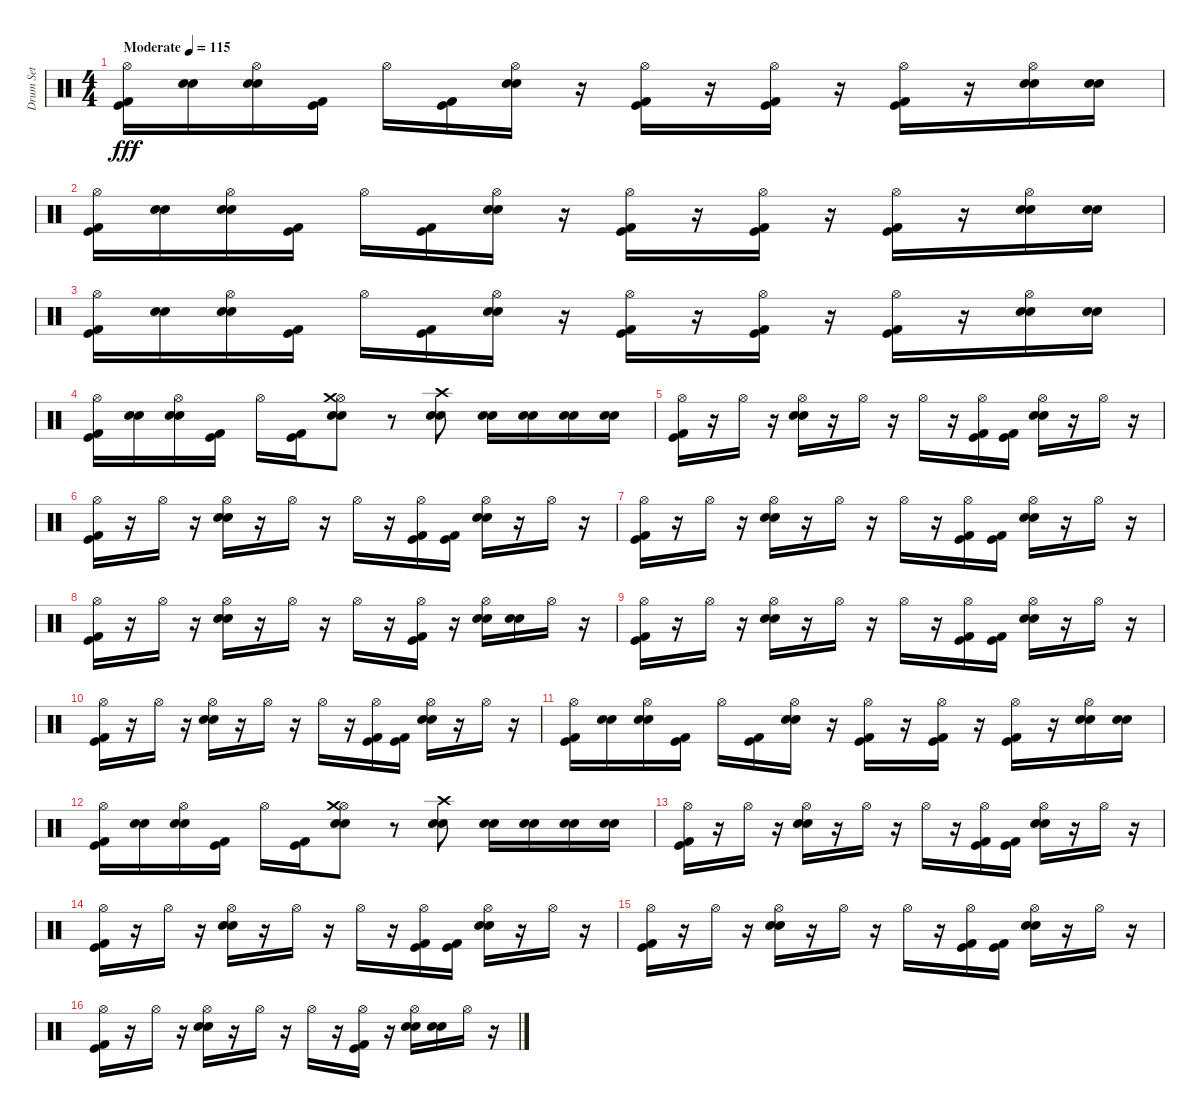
\track ("Drum Set" "Drum Set") {instrument percussion}
\staff {score}
\articulation defaults
\ts (4 4)
\tempo (115 "Moderate")
\clef neutral
\ks c
("Hi-Hat (open)" "Kick (hit) 2" "Kick (hit)").16{dy fff} ("Electric Snare (hit)" "Snare (hit) 2").16 ("Hi-Hat (open)" "Snare (hit) 2" "Electric Snare (hit)").16 ("Kick (hit)" "Kick (hit) 2").16 "Hi-Hat (open)".16 ("Kick (hit) 2" "Kick (hit)").16 ("Hi-Hat (open)" "Electric Snare (hit)" "Snare (hit) 2").16 r.16 ("Kick (hit)" "Kick (hit) 2" "Hi-Hat (open)").16 r.16 ("Hi-Hat (open)" "Kick (hit) 2" "Kick (hit)").16 r.16 ("Hi-Hat (open)" "Kick (hit)" "Kick (hit) 2").16 r.16 ("Hi-Hat (open)" "Electric Snare (hit)" "Snare (hit) 2").16 ("Snare (hit) 2" "Electric Snare (hit)").16 |
("Hi-Hat (open)" "Kick (hit) 2" "Kick (hit)").16 ("Electric Snare (hit)" "Snare (hit) 2").16 ("Hi-Hat (open)" "Snare (hit) 2" "Electric Snare (hit)").16 ("Kick (hit)" "Kick (hit) 2").16 "Hi-Hat (open)".16 ("Kick (hit) 2" "Kick (hit)").16 ("Hi-Hat (open)" "Electric Snare (hit)" "Snare (hit) 2").16 r.16 ("Kick (hit)" "Kick (hit) 2" "Hi-Hat (open)").16 r.16 ("Hi-Hat (open)" "Kick (hit) 2" "Kick (hit)").16 r.16 ("Hi-Hat (open)" "Kick (hit)" "Kick (hit) 2").16 r.16 ("Hi-Hat (open)" "Electric Snare (hit)" "Snare (hit) 2").16 ("Snare (hit) 2" "Electric Snare (hit)").16 |
("Hi-Hat (open)" "Kick (hit) 2" "Kick (hit)").16 ("Electric Snare (hit)" "Snare (hit) 2").16 ("Hi-Hat (open)" "Snare (hit) 2" "Electric Snare (hit)").16 ("Kick (hit)" "Kick (hit) 2").16 "Hi-Hat (open)".16 ("Kick (hit) 2" "Kick (hit)").16 ("Hi-Hat (open)" "Electric Snare (hit)" "Snare (hit) 2").16 r.16 ("Kick (hit)" "Kick (hit) 2" "Hi-Hat (open)").16 r.16 ("Hi-Hat (open)" "Kick (hit) 2" "Kick (hit)").16 r.16 ("Hi-Hat (open)" "Kick (hit)" "Kick (hit) 2").16 r.16 ("Hi-Hat (open)" "Electric Snare (hit)" "Snare (hit) 2").16 ("Snare (hit) 2" "Electric Snare (hit)").16 |
("Hi-Hat (open)" "Kick (hit) 2" "Kick (hit)").16 ("Electric Snare (hit)" "Snare (hit) 2").16 ("Hi-Hat (open)" "Snare (hit) 2" "Electric Snare (hit)").16 ("Kick (hit)" "Kick (hit) 2").16 "Hi-Hat (open)".16 ("Kick (hit) 2" "Kick (hit)").16 ("Hi-Hat (open)" "Electric Snare (hit)" "Snare (hit) 2" "Crash medium (hit)").8 r.8 ("Snare (hit) 2" "Electric Snare (hit)" "Crash high (hit)").8 ("Snare (hit) 2" "Electric Snare (hit)").16 ("Electric Snare (hit)" "Snare (hit) 2").16 ("Snare (hit) 2" "Electric Snare (hit)").16 ("Electric Snare (hit)" "Snare (hit) 2").16 |
("Hi-Hat (open)" "Kick (hit)" "Kick (hit) 2").16 r.16 "Hi-Hat (open)".16 r.16 ("Hi-Hat (open)" "Electric Snare (hit)" "Snare (hit) 2").16 r.16 "Hi-Hat (open)".16 r.16 "Hi-Hat (open)".16 r.16 ("Hi-Hat (open)" "Kick (hit) 2" "Kick (hit)").16 ("Kick (hit) 2" "Kick (hit)").16 ("Hi-Hat (open)" "Electric Snare (hit)" "Snare (hit) 2").16 r.16 "Hi-Hat (open)".16 r.16 |
("Kick (hit)" "Kick (hit) 2" "Hi-Hat (open)").16 r.16 "Hi-Hat (open)".16 r.16 ("Electric Snare (hit)" "Snare (hit) 2" "Hi-Hat (open)").16 r.16 "Hi-Hat (open)".16 r.16 "Hi-Hat (open)".16 r.16 ("Kick (hit) 2" "Kick (hit)" "Hi-Hat (open)").16 ("Kick (hit) 2" "Kick (hit)").16 ("Electric Snare (hit)" "Snare (hit) 2" "Hi-Hat (open)").16 r.16 "Hi-Hat (open)".16 r.16 |
("Kick (hit)" "Kick (hit) 2" "Hi-Hat (open)").16 r.16 "Hi-Hat (open)".16 r.16 ("Electric Snare (hit)" "Snare (hit) 2" "Hi-Hat (open)").16 r.16 "Hi-Hat (open)".16 r.16 "Hi-Hat (open)".16 r.16 ("Kick (hit) 2" "Kick (hit)" "Hi-Hat (open)").16 ("Kick (hit) 2" "Kick (hit)").16 ("Electric Snare (hit)" "Snare (hit) 2" "Hi-Hat (open)").16 r.16 "Hi-Hat (open)".16 r.16 |
("Kick (hit)" "Kick (hit) 2" "Hi-Hat (open)").16 r.16 "Hi-Hat (open)".16 r.16 ("Electric Snare (hit)" "Snare (hit) 2" "Hi-Hat (open)").16 r.16 "Hi-Hat (open)".16 r.16 "Hi-Hat (open)".16 r.16 ("Kick (hit) 2" "Kick (hit)" "Hi-Hat (open)").16 r.16 ("Electric Snare (hit)" "Snare (hit) 2" "Hi-Hat (open)").16 ("Snare (hit) 2" "Electric Snare (hit)").16 "Hi-Hat (open)".16 r.16 |
("Hi-Hat (open)" "Kick (hit)" "Kick (hit) 2").16 r.16 "Hi-Hat (open)".16 r.16 ("Electric Snare (hit)" "Snare (hit) 2" "Hi-Hat (open)").16 r.16 "Hi-Hat (open)".16 r.16 "Hi-Hat (open)".16 r.16 ("Hi-Hat (open)" "Kick (hit)" "Kick (hit) 2").16 ("Kick (hit) 2" "Kick (hit)").16 ("Hi-Hat (open)" "Electric Snare (hit)" "Snare (hit) 2").16 r.16 "Hi-Hat (open)".16 r.16 |
("Kick (hit) 2" "Kick (hit)" "Hi-Hat (open)").16 r.16 "Hi-Hat (open)".16 r.16 ("Electric Snare (hit)" "Snare (hit) 2" "Hi-Hat (open)").16 r.16 "Hi-Hat (open)".16 r.16 "Hi-Hat (open)".16 r.16 ("Kick (hit) 2" "Kick (hit)" "Hi-Hat (open)").16 ("Kick (hit)" "Kick (hit) 2").16 ("Electric Snare (hit)" "Snare (hit) 2" "Hi-Hat (open)").16 r.16 "Hi-Hat (open)".16 r.16 |
("Hi-Hat (open)" "Kick (hit) 2" "Kick (hit)").16 ("Electric Snare (hit)" "Snare (hit) 2").16 ("Hi-Hat (open)" "Snare (hit) 2" "Electric Snare (hit)").16 ("Kick (hit)" "Kick (hit) 2").16 "Hi-Hat (open)".16 ("Kick (hit) 2" "Kick (hit)").16 ("Hi-Hat (open)" "Electric Snare (hit)" "Snare (hit) 2").16 r.16 ("Kick (hit)" "Kick (hit) 2" "Hi-Hat (open)").16 r.16 ("Hi-Hat (open)" "Kick (hit) 2" "Kick (hit)").16 r.16 ("Hi-Hat (open)" "Kick (hit)" "Kick (hit) 2").16 r.16 ("Hi-Hat (open)" "Electric Snare (hit)" "Snare (hit) 2").16 ("Snare (hit) 2" "Electric Snare (hit)").16 |
("Hi-Hat (open)" "Kick (hit) 2" "Kick (hit)").16 ("Electric Snare (hit)" "Snare (hit) 2").16 ("Hi-Hat (open)" "Snare (hit) 2" "Electric Snare (hit)").16 ("Kick (hit)" "Kick (hit) 2").16 "Hi-Hat (open)".16 ("Kick (hit) 2" "Kick (hit)").16 ("Hi-Hat (open)" "Electric Snare (hit)" "Snare (hit) 2" "Crash medium (hit)").8 r.8 ("Snare (hit) 2" "Electric Snare (hit)" "Crash high (hit)").8 ("Snare (hit) 2" "Electric Snare (hit)").16 ("Electric Snare (hit)" "Snare (hit) 2").16 ("Snare (hit) 2" "Electric Snare (hit)").16 ("Electric Snare (hit)" "Snare (hit) 2").16 |
("Hi-Hat (open)" "Kick (hit)" "Kick (hit) 2").16 r.16 "Hi-Hat (open)".16 r.16 ("Hi-Hat (open)" "Electric Snare (hit)" "Snare (hit) 2").16 r.16 "Hi-Hat (open)".16 r.16 "Hi-Hat (open)".16 r.16 ("Hi-Hat (open)" "Kick (hit) 2" "Kick (hit)").16 ("Kick (hit) 2" "Kick (hit)").16 ("Hi-Hat (open)" "Electric Snare (hit)" "Snare (hit) 2").16 r.16 "Hi-Hat (open)".16 r.16 |
("Kick (hit)" "Kick (hit) 2" "Hi-Hat (open)").16 r.16 "Hi-Hat (open)".16 r.16 ("Electric Snare (hit)" "Snare (hit) 2" "Hi-Hat (open)").16 r.16 "Hi-Hat (open)".16 r.16 "Hi-Hat (open)".16 r.16 ("Kick (hit) 2" "Kick (hit)" "Hi-Hat (open)").16 ("Kick (hit) 2" "Kick (hit)").16 ("Electric Snare (hit)" "Snare (hit) 2" "Hi-Hat (open)").16 r.16 "Hi-Hat (open)".16 r.16 |
("Hi-Hat (open)" "Kick (hit)" "Kick (hit) 2").16 r.16 "Hi-Hat (open)".16 r.16 ("Hi-Hat (open)" "Electric Snare (hit)" "Snare (hit) 2").16 r.16 "Hi-Hat (open)".16 r.16 "Hi-Hat (open)".16 r.16 ("Hi-Hat (open)" "Kick (hit) 2" "Kick (hit)").16 ("Kick (hit) 2" "Kick (hit)").16 ("Hi-Hat (open)" "Electric Snare (hit)" "Snare (hit) 2").16 r.16 "Hi-Hat (open)".16 r.16 |
("Hi-Hat (open)" "Kick (hit)" "Kick (hit) 2").16 r.16 "Hi-Hat (open)".16 r.16 ("Hi-Hat (open)" "Electric Snare (hit)" "Snare (hit) 2").16 r.16 "Hi-Hat (open)".16 r.16 "Hi-Hat (open)".16 r.16 ("Hi-Hat (open)" "Kick (hit) 2" "Kick (hit)").16 r.16 ("Hi-Hat (open)" "Electric Snare (hit)" "Snare (hit) 2").16 ("Snare (hit) 2" "Electric Snare (hit)").16 "Hi-Hat (open)".16 r.16
